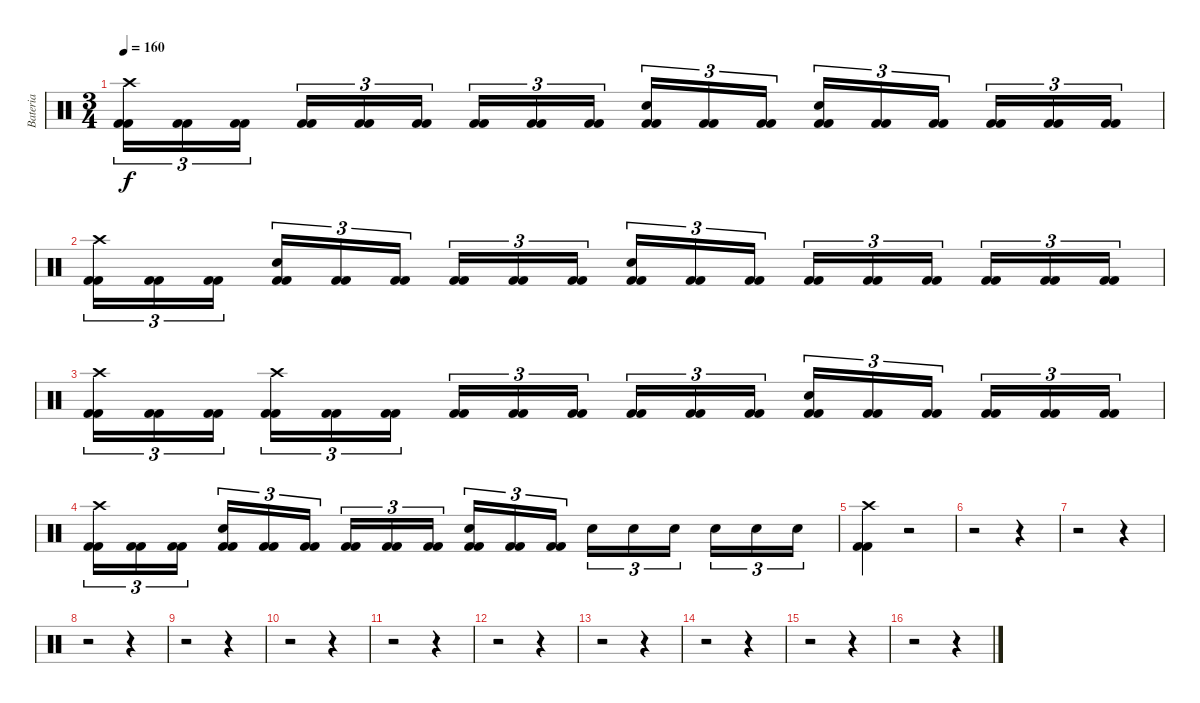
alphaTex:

\track ("Bateria" "Bateria") {instrument percussion}
\staff {score}
\articulation defaults
\ts (3 4)
\tempo 160
\clef neutral
\ks c
("Kick (hit) 2" "Kick (hit) 2" "Crash high (hit)").16{tu (3 2) dy f} ("Kick (hit) 2" "Kick (hit) 2").16{tu (3 2)} ("Kick (hit) 2" "Kick (hit) 2").16{tu (3 2)} ("Kick (hit) 2" "Kick (hit) 2").16{tu (3 2)} ("Kick (hit) 2" "Kick (hit) 2").16{tu (3 2)} ("Kick (hit) 2" "Kick (hit) 2").16{tu (3 2)} ("Kick (hit) 2" "Kick (hit) 2").16{tu (3 2)} ("Kick (hit) 2" "Kick (hit) 2").16{tu (3 2)} ("Kick (hit) 2" "Kick (hit) 2").16{tu (3 2)} ("Kick (hit) 2" "Kick (hit) 2" "Snare (hit) 2").16{tu (3 2)} ("Kick (hit) 2" "Kick (hit) 2").16{tu (3 2)} ("Kick (hit) 2" "Kick (hit) 2").16{tu (3 2)} ("Kick (hit) 2" "Kick (hit) 2" "Snare (hit) 2").16{tu (3 2)} ("Kick (hit) 2" "Kick (hit) 2").16{tu (3 2)} ("Kick (hit) 2" "Kick (hit) 2").16{tu (3 2)} ("Kick (hit) 2" "Kick (hit) 2").16{tu (3 2)} ("Kick (hit) 2" "Kick (hit) 2").16{tu (3 2)} ("Kick (hit) 2" "Kick (hit) 2").16{tu (3 2)} |
("Kick (hit) 2" "Kick (hit) 2" "Crash high (hit)").16{tu (3 2)} ("Kick (hit) 2" "Kick (hit) 2").16{tu (3 2)} ("Kick (hit) 2" "Kick (hit) 2").16{tu (3 2)} ("Kick (hit) 2" "Kick (hit) 2" "Snare (hit) 2").16{tu (3 2)} ("Kick (hit) 2" "Kick (hit) 2").16{tu (3 2)} ("Kick (hit) 2" "Kick (hit) 2").16{tu (3 2)} ("Kick (hit) 2" "Kick (hit) 2").16{tu (3 2)} ("Kick (hit) 2" "Kick (hit) 2").16{tu (3 2)} ("Kick (hit) 2" "Kick (hit) 2").16{tu (3 2)} ("Kick (hit) 2" "Kick (hit) 2" "Snare (hit) 2").16{tu (3 2)} ("Kick (hit) 2" "Kick (hit) 2").16{tu (3 2)} ("Kick (hit) 2" "Kick (hit) 2").16{tu (3 2)} ("Kick (hit) 2" "Kick (hit) 2").16{tu (3 2)} ("Kick (hit) 2" "Kick (hit) 2").16{tu (3 2)} ("Kick (hit) 2" "Kick (hit) 2").16{tu (3 2)} ("Kick (hit) 2" "Kick (hit) 2").16{tu (3 2)} ("Kick (hit) 2" "Kick (hit) 2").16{tu (3 2)} ("Kick (hit) 2" "Kick (hit) 2").16{tu (3 2)} |
("Kick (hit) 2" "Kick (hit) 2" "Crash high (hit)").16{tu (3 2)} ("Kick (hit) 2" "Kick (hit) 2").16{tu (3 2)} ("Kick (hit) 2" "Kick (hit) 2").16{tu (3 2)} ("Kick (hit) 2" "Kick (hit) 2" "Crash high (hit)").16{tu (3 2)} ("Kick (hit) 2" "Kick (hit) 2").16{tu (3 2)} ("Kick (hit) 2" "Kick (hit) 2").16{tu (3 2)} ("Kick (hit) 2" "Kick (hit) 2").16{tu (3 2)} ("Kick (hit) 2" "Kick (hit) 2").16{tu (3 2)} ("Kick (hit) 2" "Kick (hit) 2").16{tu (3 2)} ("Kick (hit) 2" "Kick (hit) 2").16{tu (3 2)} ("Kick (hit) 2" "Kick (hit) 2").16{tu (3 2)} ("Kick (hit) 2" "Kick (hit) 2").16{tu (3 2)} ("Kick (hit) 2" "Kick (hit) 2" "Snare (hit) 2").16{tu (3 2)} ("Kick (hit) 2" "Kick (hit) 2").16{tu (3 2)} ("Kick (hit) 2" "Kick (hit) 2").16{tu (3 2)} ("Kick (hit) 2" "Kick (hit) 2").16{tu (3 2)} ("Kick (hit) 2" "Kick (hit) 2").16{tu (3 2)} ("Kick (hit) 2" "Kick (hit) 2").16{tu (3 2)} |
("Kick (hit) 2" "Kick (hit) 2" "Crash high (hit)").16{tu (3 2)} ("Kick (hit) 2" "Kick (hit) 2").16{tu (3 2)} ("Kick (hit) 2" "Kick (hit) 2").16{tu (3 2)} ("Kick (hit) 2" "Kick (hit) 2" "Snare (hit) 2").16{tu (3 2)} ("Kick (hit) 2" "Kick (hit) 2").16{tu (3 2)} ("Kick (hit) 2" "Kick (hit) 2").16{tu (3 2)} ("Kick (hit) 2" "Kick (hit) 2").16{tu (3 2)} ("Kick (hit) 2" "Kick (hit) 2").16{tu (3 2)} ("Kick (hit) 2" "Kick (hit) 2").16{tu (3 2)} ("Kick (hit) 2" "Kick (hit) 2" "Snare (hit) 2").16{tu (3 2)} ("Kick (hit) 2" "Kick (hit) 2").16{tu (3 2)} ("Kick (hit) 2" "Kick (hit) 2").16{tu (3 2)} "Snare (hit) 2".16{tu (3 2)} "Snare (hit) 2".16{tu (3 2)} "Snare (hit) 2".16{tu (3 2)} "Snare (hit) 2".16{tu (3 2)} "Snare (hit) 2".16{tu (3 2)} "Snare (hit) 2".16{tu (3 2)} |
("Kick (hit) 2" "Kick (hit) 2" "Crash high (hit)").4 r.2 |
r.2 r.4 |
r.2 r.4 |
r.2 r.4 |
r.2 r.4 |
r.2 r.4 |
r.2 r.4 |
r.2 r.4 |
r.2 r.4 |
r.2 r.4 |
r.2 r.4 |
r.2 r.4
